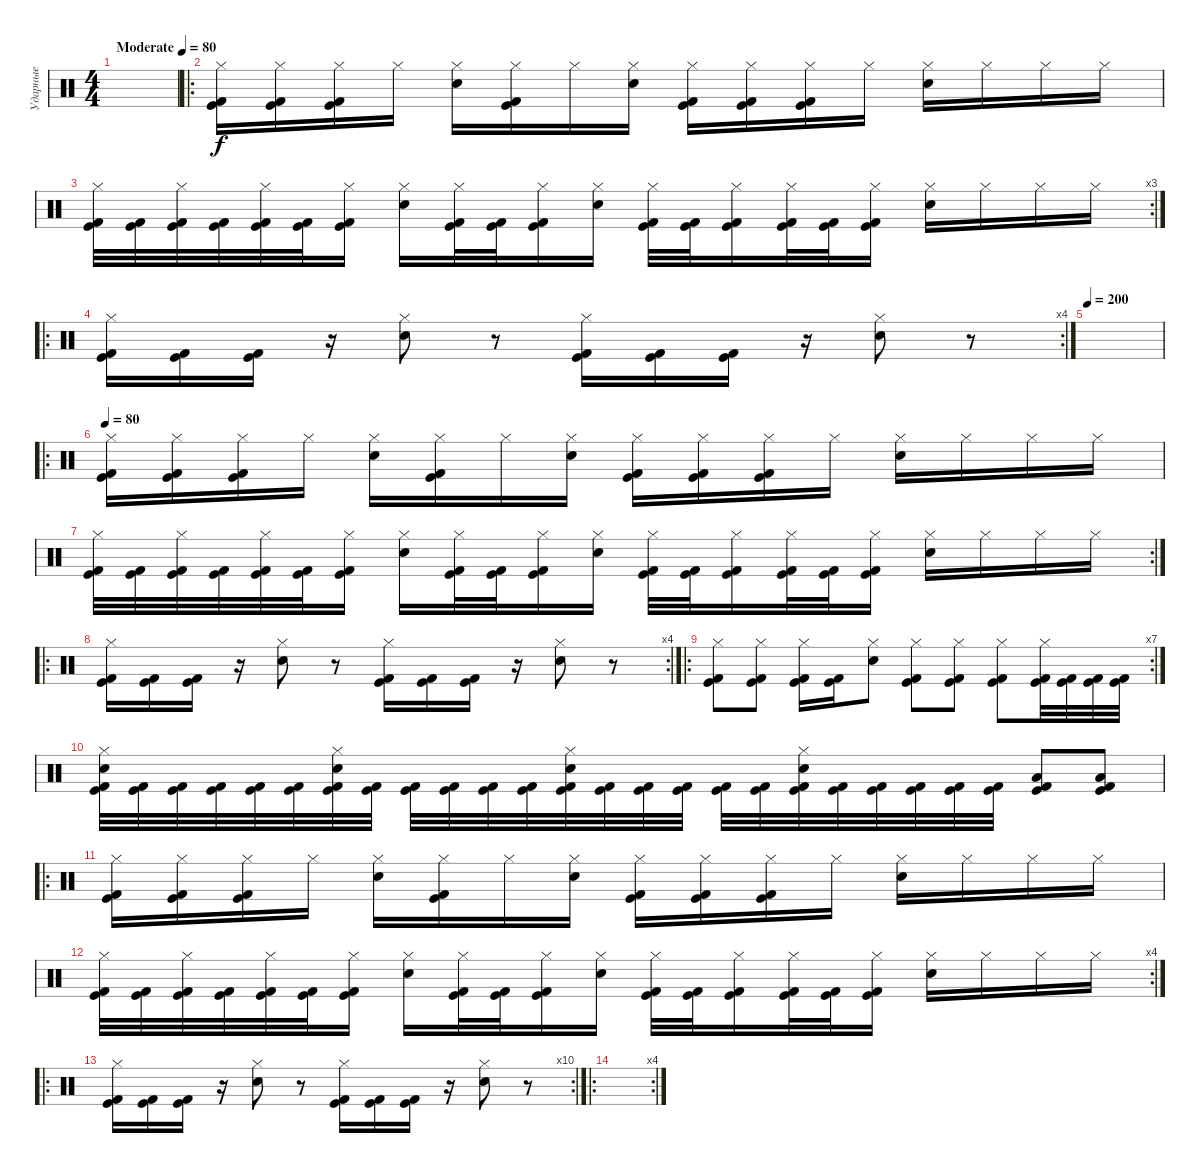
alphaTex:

\track ("Ударные" "Ударные") {instrument percussion}
\staff {score}
\articulation defaults
\ts (4 4)
\tempo (80 "Moderate")
\clef neutral
\ks c
|
\ro
("Hi-Hat (closed)" "Kick (hit) 2" "Kick (hit)").16 ("Hi-Hat (closed)" "Kick (hit) 2" "Kick (hit)").16 ("Hi-Hat (closed)" "Kick (hit) 2" "Kick (hit)").16 "Hi-Hat (closed)".16 ("Electric Snare (hit)" "Hi-Hat (closed)").16 ("Hi-Hat (closed)" "Kick (hit) 2" "Kick (hit)").16 "Hi-Hat (closed)".16 ("Electric Snare (hit)" "Hi-Hat (closed)").16 ("Hi-Hat (closed)" "Kick (hit) 2" "Kick (hit)").16 ("Hi-Hat (closed)" "Kick (hit) 2" "Kick (hit)").16 ("Hi-Hat (closed)" "Kick (hit) 2" "Kick (hit)").16 "Hi-Hat (closed)".16 ("Electric Snare (hit)" "Hi-Hat (closed)").16 "Hi-Hat (closed)".16 "Hi-Hat (closed)".16 "Hi-Hat (closed)".16 |
\rc 3
("Hi-Hat (closed)" "Kick (hit) 2" "Kick (hit)").32 ("Kick (hit) 2" "Kick (hit)").32 ("Hi-Hat (closed)" "Kick (hit) 2" "Kick (hit)").32 ("Kick (hit) 2" "Kick (hit)").32 ("Hi-Hat (closed)" "Kick (hit) 2" "Kick (hit)").32 ("Kick (hit) 2" "Kick (hit)").32 ("Hi-Hat (closed)" "Kick (hit) 2" "Kick (hit)").16 ("Electric Snare (hit)" "Hi-Hat (closed)").16 ("Hi-Hat (closed)" "Kick (hit) 2" "Kick (hit)").32 ("Kick (hit) 2" "Kick (hit)").32 ("Hi-Hat (closed)" "Kick (hit) 2" "Kick (hit)").16 ("Electric Snare (hit)" "Hi-Hat (closed)").16 ("Hi-Hat (closed)" "Kick (hit) 2" "Kick (hit)").32 ("Kick (hit) 2" "Kick (hit)").32 ("Hi-Hat (closed)" "Kick (hit) 2" "Kick (hit)").16 ("Hi-Hat (closed)" "Kick (hit) 2" "Kick (hit)").32 ("Kick (hit) 2" "Kick (hit)").32 ("Hi-Hat (closed)" "Kick (hit) 2" "Kick (hit)").16 ("Electric Snare (hit)" "Hi-Hat (closed)").16 "Hi-Hat (closed)".16 "Hi-Hat (closed)".16 "Hi-Hat (closed)".16 |
\ro
\rc 4
("Hi-Hat (closed)" "Kick (hit) 2" "Kick (hit)").16 ("Kick (hit) 2" "Kick (hit)").16 ("Kick (hit) 2" "Kick (hit)").16 r.16 ("Electric Snare (hit)" "Hi-Hat (closed)").8 r.8 ("Hi-Hat (closed)" "Kick (hit) 2" "Kick (hit)").16 ("Kick (hit) 2" "Kick (hit)").16 ("Kick (hit) 2" "Kick (hit)").16 r.16 ("Electric Snare (hit)" "Hi-Hat (closed)").8 r.8 |
\tempo 200
|
\ro
\tempo 80
("Hi-Hat (closed)" "Kick (hit) 2" "Kick (hit)").16 ("Hi-Hat (closed)" "Kick (hit) 2" "Kick (hit)").16 ("Hi-Hat (closed)" "Kick (hit) 2" "Kick (hit)").16 "Hi-Hat (closed)".16 ("Electric Snare (hit)" "Hi-Hat (closed)").16 ("Hi-Hat (closed)" "Kick (hit) 2" "Kick (hit)").16 "Hi-Hat (closed)".16 ("Electric Snare (hit)" "Hi-Hat (closed)").16 ("Hi-Hat (closed)" "Kick (hit) 2" "Kick (hit)").16 ("Hi-Hat (closed)" "Kick (hit) 2" "Kick (hit)").16 ("Hi-Hat (closed)" "Kick (hit) 2" "Kick (hit)").16 "Hi-Hat (closed)".16 ("Electric Snare (hit)" "Hi-Hat (closed)").16 "Hi-Hat (closed)".16 "Hi-Hat (closed)".16 "Hi-Hat (closed)".16 |
\rc 2
("Hi-Hat (closed)" "Kick (hit) 2" "Kick (hit)").32 ("Kick (hit) 2" "Kick (hit)").32 ("Hi-Hat (closed)" "Kick (hit) 2" "Kick (hit)").32 ("Kick (hit) 2" "Kick (hit)").32 ("Hi-Hat (closed)" "Kick (hit) 2" "Kick (hit)").32 ("Kick (hit) 2" "Kick (hit)").32 ("Hi-Hat (closed)" "Kick (hit) 2" "Kick (hit)").16 ("Electric Snare (hit)" "Hi-Hat (closed)").16 ("Hi-Hat (closed)" "Kick (hit) 2" "Kick (hit)").32 ("Kick (hit) 2" "Kick (hit)").32 ("Hi-Hat (closed)" "Kick (hit) 2" "Kick (hit)").16 ("Electric Snare (hit)" "Hi-Hat (closed)").16 ("Hi-Hat (closed)" "Kick (hit) 2" "Kick (hit)").32 ("Kick (hit) 2" "Kick (hit)").32 ("Hi-Hat (closed)" "Kick (hit) 2" "Kick (hit)").16 ("Hi-Hat (closed)" "Kick (hit) 2" "Kick (hit)").32 ("Kick (hit) 2" "Kick (hit)").32 ("Hi-Hat (closed)" "Kick (hit) 2" "Kick (hit)").16 ("Electric Snare (hit)" "Hi-Hat (closed)").16 "Hi-Hat (closed)".16 "Hi-Hat (closed)".16 "Hi-Hat (closed)".16 |
\ro
\rc 4
("Hi-Hat (closed)" "Kick (hit) 2" "Kick (hit)").16 ("Kick (hit) 2" "Kick (hit)").16 ("Kick (hit) 2" "Kick (hit)").16 r.16 ("Electric Snare (hit)" "Hi-Hat (closed)").8 r.8 ("Hi-Hat (closed)" "Kick (hit) 2" "Kick (hit)").16 ("Kick (hit) 2" "Kick (hit)").16 ("Kick (hit) 2" "Kick (hit)").16 r.16 ("Electric Snare (hit)" "Hi-Hat (closed)").8 r.8 |
\ro
\rc 7
("Hi-Hat (closed)" "Kick (hit) 2" "Kick (hit)").8 ("Hi-Hat (closed)" "Kick (hit) 2" "Kick (hit)").8 ("Hi-Hat (closed)" "Kick (hit) 2" "Kick (hit)").16 ("Kick (hit) 2" "Kick (hit)").16 ("Electric Snare (hit)" "Hi-Hat (closed)").8 ("Hi-Hat (closed)" "Kick (hit) 2" "Kick (hit)").8 ("Hi-Hat (closed)" "Kick (hit) 2" "Kick (hit)").8 ("Hi-Hat (closed)" "Kick (hit) 2" "Kick (hit)").8 ("Hi-Hat (closed)" "Kick (hit) 2" "Kick (hit)").32 ("Kick (hit) 2" "Kick (hit)").32 ("Kick (hit) 2" "Kick (hit)").32 ("Kick (hit) 2" "Kick (hit)").32 |
("Electric Snare (hit)" "Hi-Hat (closed)" "Kick (hit) 2" "Kick (hit)").32 ("Kick (hit) 2" "Kick (hit)").32 ("Kick (hit) 2" "Kick (hit)").32 ("Kick (hit) 2" "Kick (hit)").32 ("Kick (hit) 2" "Kick (hit)").32 ("Kick (hit) 2" "Kick (hit)").32 ("Electric Snare (hit)" "Hi-Hat (closed)" "Kick (hit) 2" "Kick (hit)").32 ("Kick (hit) 2" "Kick (hit)").32 ("Kick (hit) 2" "Kick (hit)").32 ("Kick (hit) 2" "Kick (hit)").32 ("Kick (hit) 2" "Kick (hit)").32 ("Kick (hit) 2" "Kick (hit)").32 ("Electric Snare (hit)" "Hi-Hat (closed)" "Kick (hit) 2" "Kick (hit)").32 ("Kick (hit) 2" "Kick (hit)").32 ("Kick (hit) 2" "Kick (hit)").32 ("Kick (hit) 2" "Kick (hit)").32 ("Kick (hit) 2" "Kick (hit)").32 ("Kick (hit) 2" "Kick (hit)").32 ("Electric Snare (hit)" "Hi-Hat (closed)" "Kick (hit) 2" "Kick (hit)").32 ("Kick (hit) 2" "Kick (hit)").32 ("Kick (hit) 2" "Kick (hit)").32 ("Kick (hit) 2" "Kick (hit)").32 ("Kick (hit) 2" "Kick (hit)").32 ("Kick (hit) 2" "Kick (hit)").32 ("Low Floor Tom (hit)" "Kick (hit) 2" "Kick (hit)").8 ("Low Floor Tom (hit)" "Kick (hit) 2" "Kick (hit)").8 |
\ro
("Hi-Hat (closed)" "Kick (hit) 2" "Kick (hit)").16 ("Hi-Hat (closed)" "Kick (hit) 2" "Kick (hit)").16 ("Hi-Hat (closed)" "Kick (hit) 2" "Kick (hit)").16 "Hi-Hat (closed)".16 ("Electric Snare (hit)" "Hi-Hat (closed)").16 ("Hi-Hat (closed)" "Kick (hit) 2" "Kick (hit)").16 "Hi-Hat (closed)".16 ("Electric Snare (hit)" "Hi-Hat (closed)").16 ("Hi-Hat (closed)" "Kick (hit) 2" "Kick (hit)").16 ("Hi-Hat (closed)" "Kick (hit) 2" "Kick (hit)").16 ("Hi-Hat (closed)" "Kick (hit) 2" "Kick (hit)").16 "Hi-Hat (closed)".16 ("Electric Snare (hit)" "Hi-Hat (closed)").16 "Hi-Hat (closed)".16 "Hi-Hat (closed)".16 "Hi-Hat (closed)".16 |
\rc 4
("Hi-Hat (closed)" "Kick (hit) 2" "Kick (hit)").32 ("Kick (hit) 2" "Kick (hit)").32 ("Hi-Hat (closed)" "Kick (hit) 2" "Kick (hit)").32 ("Kick (hit) 2" "Kick (hit)").32 ("Hi-Hat (closed)" "Kick (hit) 2" "Kick (hit)").32 ("Kick (hit) 2" "Kick (hit)").32 ("Hi-Hat (closed)" "Kick (hit) 2" "Kick (hit)").16 ("Electric Snare (hit)" "Hi-Hat (closed)").16 ("Hi-Hat (closed)" "Kick (hit) 2" "Kick (hit)").32 ("Kick (hit) 2" "Kick (hit)").32 ("Hi-Hat (closed)" "Kick (hit) 2" "Kick (hit)").16 ("Electric Snare (hit)" "Hi-Hat (closed)").16 ("Hi-Hat (closed)" "Kick (hit) 2" "Kick (hit)").32 ("Kick (hit) 2" "Kick (hit)").32 ("Hi-Hat (closed)" "Kick (hit) 2" "Kick (hit)").16 ("Hi-Hat (closed)" "Kick (hit) 2" "Kick (hit)").32 ("Kick (hit) 2" "Kick (hit)").32 ("Hi-Hat (closed)" "Kick (hit) 2" "Kick (hit)").16 ("Electric Snare (hit)" "Hi-Hat (closed)").16 "Hi-Hat (closed)".16 "Hi-Hat (closed)".16 "Hi-Hat (closed)".16 |
\ro
\rc 10
("Hi-Hat (closed)" "Kick (hit) 2" "Kick (hit)").16 ("Kick (hit) 2" "Kick (hit)").16 ("Kick (hit) 2" "Kick (hit)").16 r.16 ("Electric Snare (hit)" "Hi-Hat (closed)").8 r.8 ("Hi-Hat (closed)" "Kick (hit) 2" "Kick (hit)").16 ("Kick (hit) 2" "Kick (hit)").16 ("Kick (hit) 2" "Kick (hit)").16 r.16 ("Electric Snare (hit)" "Hi-Hat (closed)").8 r.8 |
\ro
\rc 4
